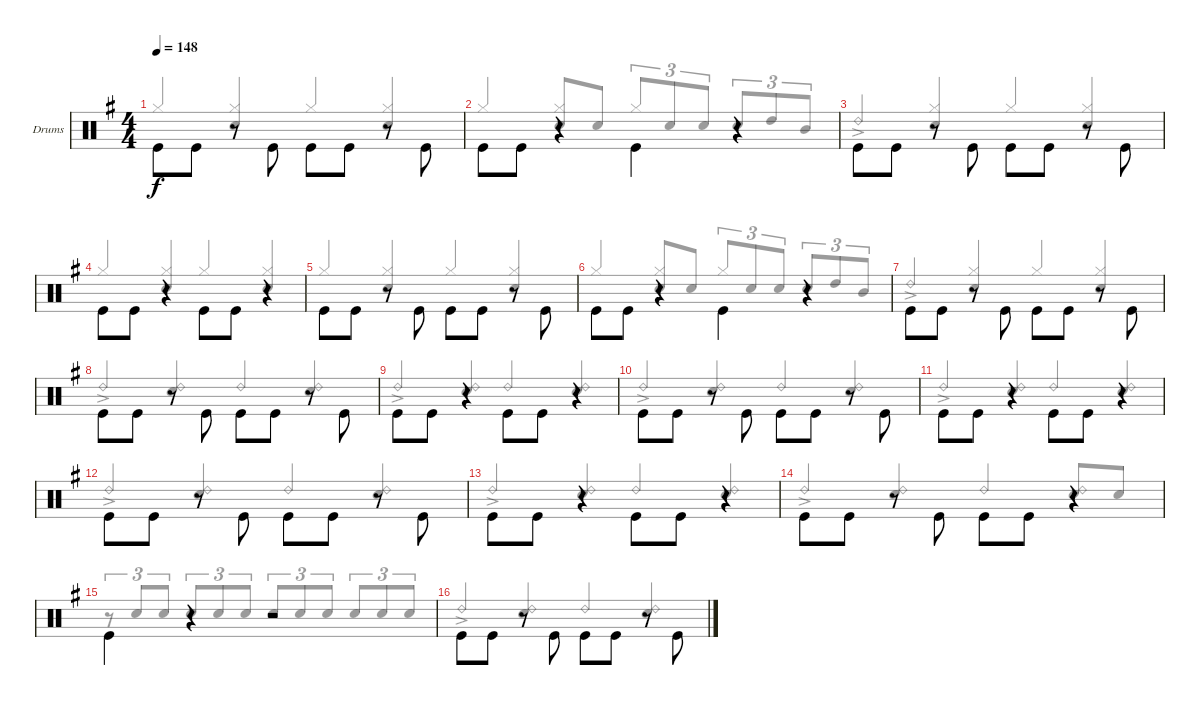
\bracketExtendMode groupsimilarinstruments
\firstSystemTrackNameOrientation horizontal
\otherSystemsTrackNameOrientation horizontal
\track ("Drumkit" "Drums") {instrument percussion}
\staff {score}
\articulation defaults
\voice
\ts (4 4)
\tempo 148
\clef neutral
\scale
1.04288
\ks g "Kick (hit)".8{dy f beam invert} "Kick (hit)".8
r.8{beam invert} "Kick (hit)".8{beam invert} "Kick (hit)".8{beam invert} "Kick (hit)".8 r.8{beam invert} "Kick (hit)".8{beam invert} |
\scale
0.957125 "Kick (hit)".8{beam invert} "Kick (hit)".8 r.4{beam invert} "Kick (hit)".4{beam invert} r.4 |
\scale
1.04288 "Kick (hit)".8{beam invert} "Kick (hit)".8 r.8{beam invert} "Kick (hit)".8{beam invert} "Kick (hit)".8{beam invert} "Kick (hit)".8 r.8{beam invert} "Kick (hit)".8{beam invert} |
\scale
0.957125 "Kick (hit)".8{beam invert} "Kick (hit)".8 r.4{beam invert} "Kick (hit)".8{beam invert} "Kick (hit)".8 r.4{beam invert} |
\scale
1.04288 "Kick (hit)".8{beam invert} "Kick (hit)".8 r.8{beam invert} "Kick (hit)".8{beam invert} "Kick (hit)".8{beam invert} "Kick (hit)".8 r.8{beam invert} "Kick (hit)".8{beam invert} |
\scale
0.957125 "Kick (hit)".8{beam invert} "Kick (hit)".8 r.4{beam invert} "Kick (hit)".4{beam invert} r.4 |
\scale
1.04288 "Kick (hit)".8{beam invert} "Kick (hit)".8 r.8{beam invert} "Kick (hit)".8{beam invert} "Kick (hit)".8{beam invert} "Kick (hit)".8 r.8{beam invert} "Kick (hit)".8{beam invert} |
\scale
0.957125 "Kick (hit)".8{beam invert} "Kick (hit)".8 r.8{beam invert} "Kick (hit)".8{beam invert} "Kick (hit)".8{beam invert} "Kick (hit)".8 r.8{beam invert} "Kick (hit)".8{beam invert} |
\scale
1.04288 "Kick (hit)".8{beam invert} "Kick (hit)".8 r.4{beam invert} "Kick (hit)".8{beam invert} "Kick (hit)".8 r.4{beam invert} |
\scale
0.957125 "Kick (hit)".8{beam invert} "Kick (hit)".8 r.8{beam invert} "Kick (hit)".8{beam invert} "Kick (hit)".8{beam invert} "Kick (hit)".8 r.8{beam invert} "Kick (hit)".8{beam invert} |
\scale
1.04288 "Kick (hit)".8{beam invert} "Kick (hit)".8 r.4{beam invert} "Kick (hit)".8{beam invert} "Kick (hit)".8 r.4{beam invert} |
\scale
0.957125 "Kick (hit)".8{beam invert} "Kick (hit)".8 r.8{beam invert} "Kick (hit)".8{beam invert} "Kick (hit)".8{beam invert} "Kick (hit)".8 r.8{beam invert} "Kick (hit)".8{beam invert} |
\scale
1.04288 "Kick (hit)".8{beam invert} "Kick (hit)".8 r.4{beam invert} "Kick (hit)".8{beam invert} "Kick (hit)".8 r.4{beam invert} |
\scale
0.957125 "Kick (hit)".8{beam invert} "Kick (hit)".8 r.8{beam invert} "Kick (hit)".8{beam invert} "Kick (hit)".8{beam invert} "Kick (hit)".8 r.4{beam invert} |
\scale
1.04288 "Kick (hit)".4{beam invert} r.4 r.2 |
\scale
0.957125 "Kick (hit)".8{beam invert} "Kick (hit)".8 r.8{beam invert} "Kick (hit)".8{beam invert} "Kick (hit)".8{beam invert} "Kick (hit)".8 r.8{beam invert} "Kick (hit)".8{beam invert}
\voice
\clef neutral
\ottava regular
\simile none
\scale
1.04288
\ks g "Hi-Hat (closed)".4{dy f beam invert}
("Hi-Hat (closed)" "Snare (hit) 2").4{beam invert} "Hi-Hat (closed)".4{beam invert} ("Hi-Hat (closed)" "Snare (hit) 2").4{beam invert} |
\scale
0.957125 "Hi-Hat (closed)".4{beam invert} ("Hi-Hat (closed)" "Snare (hit) 2").8{beam invert} "Snare (hit) 2".8 "Hi-Hat (closed)".8{tu (3 2) beam invert} "Snare (hit) 2".8{tu (3 2)} "Snare (hit) 2".8{tu (3 2)} "Snare (hit) 2".8{tu (3 2) beam invert} "High Tom (hit)".8{tu (3 2)} "Mid Tom (hit)".8{tu (3 2)} |
\scale
1.04288 "Ride (bell) 2"{ac}.4{beam invert} ("Hi-Hat (closed)" "Snare (hit) 2").4{beam invert} "Hi-Hat (closed)".4{beam invert} ("Hi-Hat (closed)" "Snare (hit) 2").4{beam invert} |
\scale
0.957125 "Hi-Hat (closed)".4{beam invert} ("Hi-Hat (closed)" "Snare (hit) 2").4{beam invert} "Hi-Hat (closed)".4{beam invert} ("Hi-Hat (closed)" "Snare (hit) 2").4{beam invert} |
\scale
1.04288 "Hi-Hat (closed)".4{beam invert} ("Hi-Hat (closed)" "Snare (hit) 2").4{beam invert} "Hi-Hat (closed)".4{beam invert} ("Hi-Hat (closed)" "Snare (hit) 2").4{beam invert} |
\scale
0.957125 "Hi-Hat (closed)".4{beam invert} ("Hi-Hat (closed)" "Snare (hit) 2").8{beam invert} "Snare (hit) 2".8 "Hi-Hat (closed)".8{tu (3 2) beam invert} "Snare (hit) 2".8{tu (3 2)} "Snare (hit) 2".8{tu (3 2)} "Snare (hit) 2".8{tu (3 2) beam invert} "High Tom (hit)".8{tu (3 2)} "Mid Tom (hit)".8{tu (3 2)} |
\scale
1.04288 "Ride (bell) 2"{ac}.4{beam invert} ("Hi-Hat (closed)" "Snare (hit) 2").4{beam invert} "Hi-Hat (closed)".4{beam invert} ("Hi-Hat (closed)" "Snare (hit) 2").4{beam invert} |
\scale
0.957125 "Ride (bell) 2"{ac}.4{beam invert} ("Snare (hit) 2" "Ride (bell) 2").4{beam invert} "Ride (bell) 2".4{beam invert} ("Snare (hit) 2" "Ride (bell) 2").4{beam invert} |
\scale
1.04288 "Ride (bell) 2"{ac}.4{beam invert} ("Snare (hit) 2" "Ride (bell) 2").4{beam invert} "Ride (bell) 2".4{beam invert} ("Snare (hit) 2" "Ride (bell) 2").4{beam invert} |
\scale
0.957125 "Ride (bell) 2"{ac}.4{beam invert} ("Snare (hit) 2" "Ride (bell) 2").4{beam invert} "Ride (bell) 2".4{beam invert} ("Snare (hit) 2" "Ride (bell) 2").4{beam invert} |
\scale
1.04288 "Ride (bell) 2"{ac}.4{beam invert} ("Snare (hit) 2" "Ride (bell) 2").4{beam invert} "Ride (bell) 2".4{beam invert} ("Snare (hit) 2" "Ride (bell) 2").4{beam invert} |
\scale
0.957125 "Ride (bell) 2"{ac}.4{beam invert} ("Snare (hit) 2" "Ride (bell) 2").4{beam invert} "Ride (bell) 2".4{beam invert} ("Snare (hit) 2" "Ride (bell) 2").4{beam invert} |
\scale
1.04288 "Ride (bell) 2"{ac}.4{beam invert} ("Snare (hit) 2" "Ride (bell) 2").4{beam invert} "Ride (bell) 2".4{beam invert} ("Snare (hit) 2" "Ride (bell) 2").4{beam invert} |
\scale
0.957125 "Ride (bell) 2"{ac}.4{beam invert} ("Snare (hit) 2" "Ride (bell) 2").4{beam invert} "Ride (bell) 2".4{beam invert} ("Snare (hit) 2" "Ride (bell) 2").8{beam invert} "Snare (hit) 2".8 |
\scale
1.04288 r.8{tu (3 2) beam invert} "Snare (hit) 2".8{tu (3 2) beam invert} "Snare (hit) 2".8{tu (3 2)} "Snare (hit) 2".8{tu (3 2) beam invert} "Snare (hit) 2".8{tu (3 2)} "Snare (hit) 2".8{tu (3 2)} "Snare (hit) 2".8{tu (3 2) beam invert} "Snare (hit) 2".8{tu (3 2)} "Snare (hit) 2".8{tu (3 2)} "Snare (hit) 2".8{tu (3 2) beam invert} "Snare (hit) 2".8{tu (3 2)} "Snare (hit) 2".8{tu (3 2)} |
\scale
0.957125 "Ride (bell) 2"{ac}.4{beam invert} ("Snare (hit) 2" "Ride (bell) 2").4{beam invert} "Ride (bell) 2".4{beam invert} ("Snare (hit) 2" "Ride (bell) 2").4{beam invert}
